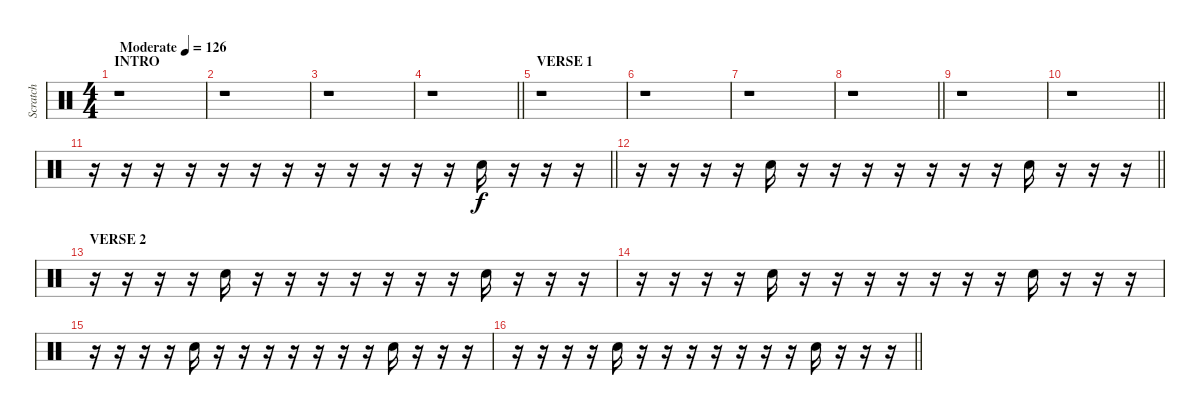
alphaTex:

\track ("Scratch" "Scratch") {instrument percussion}
\staff {score}
\articulation defaults
\ts (4 4)
\section ("" "INTRO")
\tempo (126 "Moderate")
\clef neutral
\ks c
r.1{dy f} |
r.1 |
r.1 |
\barLineRight lightlight
r.1 |
\section ("" "VERSE 1")
r.1 |
r.1 |
r.1 |
\barLineRight lightlight
r.1 |
r.1 |
\barLineRight lightlight
r.1 |
\barLineRight lightlight
r.16 r.16 r.16 r.16 r.16 r.16 r.16 r.16 r.16 r.16 r.16 r.16 "Hand Clap (hit)".16 r.16 r.16 r.16 |
\barLineRight lightlight
r.16 r.16 r.16 r.16 "Hand Clap (hit)".16 r.16 r.16 r.16 r.16 r.16 r.16 r.16 "Hand Clap (hit)".16 r.16 r.16 r.16 |
\section ("" "VERSE 2")
r.16 r.16 r.16 r.16 "Hand Clap (hit)".16 r.16 r.16 r.16 r.16 r.16 r.16 r.16 "Hand Clap (hit)".16 r.16 r.16 r.16 |
r.16 r.16 r.16 r.16 "Hand Clap (hit)".16 r.16 r.16 r.16 r.16 r.16 r.16 r.16 "Hand Clap (hit)".16 r.16 r.16 r.16 |
r.16 r.16 r.16 r.16 "Hand Clap (hit)".16 r.16 r.16 r.16 r.16 r.16 r.16 r.16 "Hand Clap (hit)".16 r.16 r.16 r.16 |
\barLineRight lightlight
r.16 r.16 r.16 r.16 "Hand Clap (hit)".16 r.16 r.16 r.16 r.16 r.16 r.16 r.16 "Hand Clap (hit)".16 r.16 r.16 r.16
